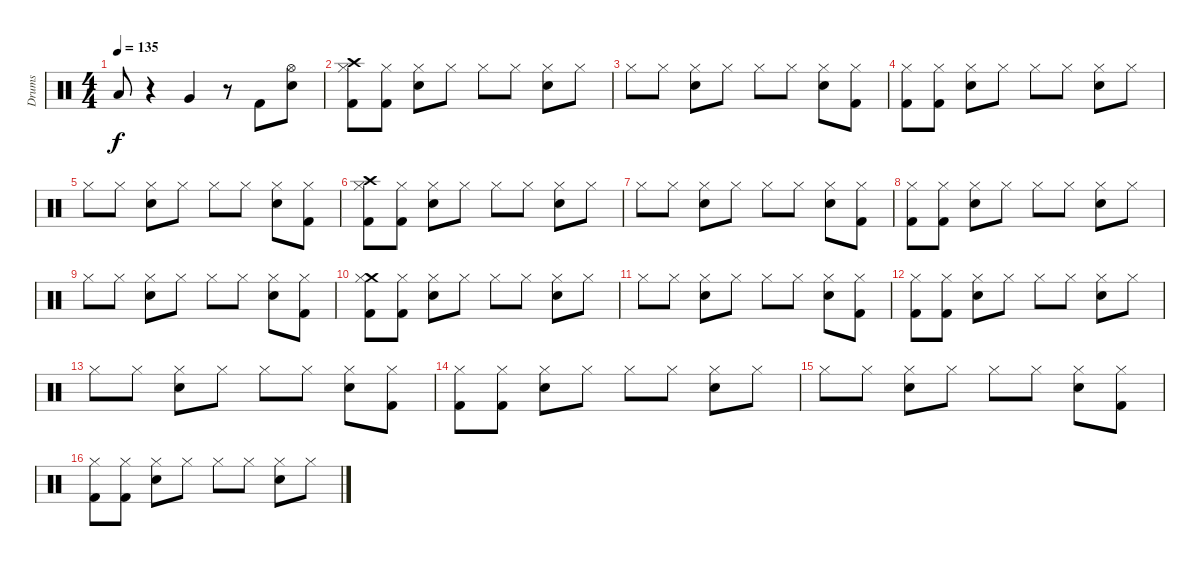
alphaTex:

\track ("Drums" "Drums") {instrument percussion}
\staff {score}
\articulation defaults
\ts (4 4)
\tempo 135
\clef neutral
\ks c "Low Tom (hit)".8{dy f}
r.4 "Very Low Tom (hit)".4 r.8 "Kick (hit) 2".8 ("Hi-Hat (open)" "Electric Snare (hit)").8 |
("Crash high (hit)" "Hi-Hat (closed)" "Kick (hit) 2").8 ("Hi-Hat (closed)" "Kick (hit) 2").8 ("Hi-Hat (closed)" "Electric Snare (hit)").8 "Hi-Hat (closed)".8 "Hi-Hat (closed)".8 "Hi-Hat (closed)".8 ("Hi-Hat (closed)" "Electric Snare (hit)").8 "Hi-Hat (closed)".8 |
"Hi-Hat (closed)".8 "Hi-Hat (closed)".8 ("Hi-Hat (closed)" "Electric Snare (hit)").8 "Hi-Hat (closed)".8 "Hi-Hat (closed)".8 "Hi-Hat (closed)".8 ("Hi-Hat (closed)" "Electric Snare (hit)").8 ("Hi-Hat (closed)" "Kick (hit) 2").8 |
("Hi-Hat (closed)" "Kick (hit) 2").8 ("Hi-Hat (closed)" "Kick (hit) 2").8 ("Hi-Hat (closed)" "Electric Snare (hit)").8 "Hi-Hat (closed)".8 "Hi-Hat (closed)".8 "Hi-Hat (closed)".8 ("Hi-Hat (closed)" "Electric Snare (hit)").8 "Hi-Hat (closed)".8 |
"Hi-Hat (closed)".8 "Hi-Hat (closed)".8 ("Hi-Hat (closed)" "Electric Snare (hit)").8 "Hi-Hat (closed)".8 "Hi-Hat (closed)".8 "Hi-Hat (closed)".8 ("Hi-Hat (closed)" "Electric Snare (hit)").8 ("Hi-Hat (closed)" "Kick (hit) 2").8 |
("Crash high (hit)" "Hi-Hat (closed)" "Kick (hit) 2").8 ("Hi-Hat (closed)" "Kick (hit) 2").8 ("Hi-Hat (closed)" "Electric Snare (hit)").8 "Hi-Hat (closed)".8 "Hi-Hat (closed)".8 "Hi-Hat (closed)".8 ("Hi-Hat (closed)" "Electric Snare (hit)").8 "Hi-Hat (closed)".8 |
"Hi-Hat (closed)".8 "Hi-Hat (closed)".8 ("Hi-Hat (closed)" "Electric Snare (hit)").8 "Hi-Hat (closed)".8 "Hi-Hat (closed)".8 "Hi-Hat (closed)".8 ("Hi-Hat (closed)" "Electric Snare (hit)").8 ("Hi-Hat (closed)" "Kick (hit) 2").8 |
("Hi-Hat (closed)" "Kick (hit) 2").8 ("Hi-Hat (closed)" "Kick (hit) 2").8 ("Hi-Hat (closed)" "Electric Snare (hit)").8 "Hi-Hat (closed)".8 "Hi-Hat (closed)".8 "Hi-Hat (closed)".8 ("Hi-Hat (closed)" "Electric Snare (hit)").8 "Hi-Hat (closed)".8 |
"Hi-Hat (closed)".8 "Hi-Hat (closed)".8 ("Hi-Hat (closed)" "Electric Snare (hit)").8 "Hi-Hat (closed)".8 "Hi-Hat (closed)".8 "Hi-Hat (closed)".8 ("Hi-Hat (closed)" "Electric Snare (hit)").8 ("Hi-Hat (closed)" "Kick (hit) 2").8 |
("Crash medium (hit)" "Hi-Hat (closed)" "Kick (hit) 2").8 ("Hi-Hat (closed)" "Kick (hit) 2").8 ("Hi-Hat (closed)" "Electric Snare (hit)").8 "Hi-Hat (closed)".8 "Hi-Hat (closed)".8 "Hi-Hat (closed)".8 ("Hi-Hat (closed)" "Electric Snare (hit)").8 "Hi-Hat (closed)".8 |
"Hi-Hat (closed)".8 "Hi-Hat (closed)".8 ("Hi-Hat (closed)" "Electric Snare (hit)").8 "Hi-Hat (closed)".8 "Hi-Hat (closed)".8 "Hi-Hat (closed)".8 ("Hi-Hat (closed)" "Electric Snare (hit)").8 ("Hi-Hat (closed)" "Kick (hit) 2").8 |
("Hi-Hat (closed)" "Kick (hit) 2").8 ("Hi-Hat (closed)" "Kick (hit) 2").8 ("Hi-Hat (closed)" "Electric Snare (hit)").8 "Hi-Hat (closed)".8 "Hi-Hat (closed)".8 "Hi-Hat (closed)".8 ("Hi-Hat (closed)" "Electric Snare (hit)").8 "Hi-Hat (closed)".8 |
"Hi-Hat (closed)".8 "Hi-Hat (closed)".8 ("Hi-Hat (closed)" "Electric Snare (hit)").8 "Hi-Hat (closed)".8 "Hi-Hat (closed)".8 "Hi-Hat (closed)".8 ("Hi-Hat (closed)" "Electric Snare (hit)").8 ("Hi-Hat (closed)" "Kick (hit) 2").8 |
("Hi-Hat (closed)" "Kick (hit) 2").8 ("Hi-Hat (closed)" "Kick (hit) 2").8 ("Hi-Hat (closed)" "Electric Snare (hit)").8 "Hi-Hat (closed)".8 "Hi-Hat (closed)".8 "Hi-Hat (closed)".8 ("Hi-Hat (closed)" "Electric Snare (hit)").8 "Hi-Hat (closed)".8 |
"Hi-Hat (closed)".8 "Hi-Hat (closed)".8 ("Hi-Hat (closed)" "Electric Snare (hit)").8 "Hi-Hat (closed)".8 "Hi-Hat (closed)".8 "Hi-Hat (closed)".8 ("Hi-Hat (closed)" "Electric Snare (hit)").8 ("Hi-Hat (closed)" "Kick (hit) 2").8 |
("Hi-Hat (closed)" "Kick (hit) 2").8 ("Hi-Hat (closed)" "Kick (hit) 2").8 ("Hi-Hat (closed)" "Electric Snare (hit)").8 "Hi-Hat (closed)".8 "Hi-Hat (closed)".8 "Hi-Hat (closed)".8 ("Hi-Hat (closed)" "Electric Snare (hit)").8 "Hi-Hat (closed)".8
